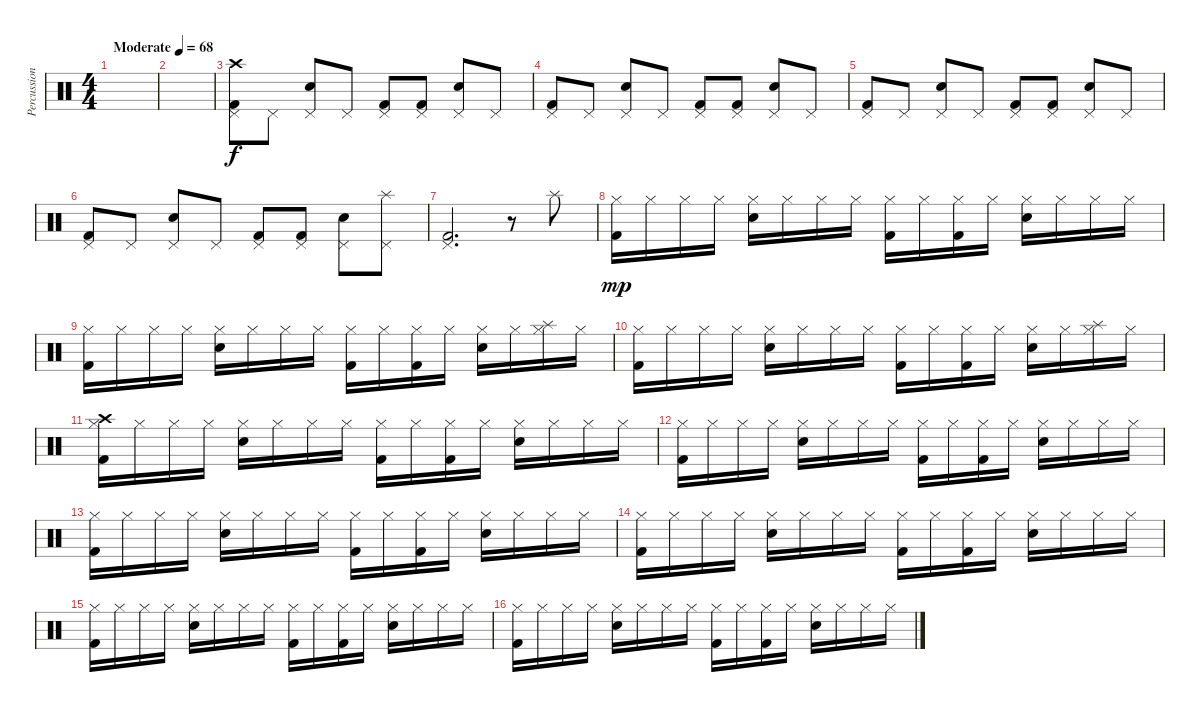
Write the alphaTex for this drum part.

\track ("Percussion" "Percussion") {instrument percussion}
\staff {score}
\articulation defaults
\ts (4 4)
\tempo (68 "Moderate")
\clef neutral
\ks c
|
|
("Crash high (hit)" "Pedal Hi-Hat (hit)" "Kick (hit) 2").8 "Pedal Hi-Hat (hit)".8 ("Pedal Hi-Hat (hit)" "Electric Snare (hit)").8 "Pedal Hi-Hat (hit)".8 ("Pedal Hi-Hat (hit)" "Kick (hit) 2").8 ("Pedal Hi-Hat (hit)" "Kick (hit) 2").8 ("Pedal Hi-Hat (hit)" "Electric Snare (hit)").8 "Pedal Hi-Hat (hit)".8 |
("Pedal Hi-Hat (hit)" "Kick (hit) 2").8 "Pedal Hi-Hat (hit)".8 ("Pedal Hi-Hat (hit)" "Electric Snare (hit)").8 "Pedal Hi-Hat (hit)".8 ("Pedal Hi-Hat (hit)" "Kick (hit) 2").8 ("Pedal Hi-Hat (hit)" "Kick (hit) 2").8 ("Pedal Hi-Hat (hit)" "Electric Snare (hit)").8 "Pedal Hi-Hat (hit)".8 |
("Pedal Hi-Hat (hit)" "Kick (hit) 2").8 "Pedal Hi-Hat (hit)".8 ("Pedal Hi-Hat (hit)" "Electric Snare (hit)").8 "Pedal Hi-Hat (hit)".8 ("Pedal Hi-Hat (hit)" "Kick (hit) 2").8 ("Pedal Hi-Hat (hit)" "Kick (hit) 2").8 ("Pedal Hi-Hat (hit)" "Electric Snare (hit)").8 "Pedal Hi-Hat (hit)".8 |
("Pedal Hi-Hat (hit)" "Kick (hit) 2").8 "Pedal Hi-Hat (hit)".8 ("Pedal Hi-Hat (hit)" "Electric Snare (hit)").8 "Pedal Hi-Hat (hit)".8 ("Pedal Hi-Hat (hit)" "Kick (hit) 2").8 ("Pedal Hi-Hat (hit)" "Kick (hit) 2").8 ("Pedal Hi-Hat (hit)" "Electric Snare (hit)").8 ("Splash (hit)" "Pedal Hi-Hat (hit)").8 |
("Pedal Hi-Hat (hit)" "Kick (hit) 2").2{d} r.8 "Splash (hit)".8 |
("Hi-Hat (closed)" "Kick (hit) 2").16{dy mp} "Hi-Hat (closed)".16 "Hi-Hat (closed)".16 "Hi-Hat (closed)".16 ("Hi-Hat (closed)" "Electric Snare (hit)").16 "Hi-Hat (closed)".16 "Hi-Hat (closed)".16 "Hi-Hat (closed)".16 ("Hi-Hat (closed)" "Kick (hit) 2").16 "Hi-Hat (closed)".16 ("Hi-Hat (closed)" "Kick (hit) 2").16 "Hi-Hat (closed)".16 ("Hi-Hat (closed)" "Electric Snare (hit)").16 "Hi-Hat (closed)".16 "Hi-Hat (closed)".16 "Hi-Hat (closed)".16 |
("Hi-Hat (closed)" "Kick (hit) 2").16 "Hi-Hat (closed)".16 "Hi-Hat (closed)".16 "Hi-Hat (closed)".16 ("Hi-Hat (closed)" "Electric Snare (hit)").16 "Hi-Hat (closed)".16 "Hi-Hat (closed)".16 "Hi-Hat (closed)".16 ("Hi-Hat (closed)" "Kick (hit) 2").16 "Hi-Hat (closed)".16 ("Hi-Hat (closed)" "Kick (hit) 2").16 "Hi-Hat (closed)".16 ("Hi-Hat (closed)" "Electric Snare (hit)").16 "Hi-Hat (closed)".16 ("Splash (hit)" "Hi-Hat (closed)").16 "Hi-Hat (closed)".16 |
("Hi-Hat (closed)" "Kick (hit) 2").16 "Hi-Hat (closed)".16 "Hi-Hat (closed)".16 "Hi-Hat (closed)".16 ("Hi-Hat (closed)" "Electric Snare (hit)").16 "Hi-Hat (closed)".16 "Hi-Hat (closed)".16 "Hi-Hat (closed)".16 ("Hi-Hat (closed)" "Kick (hit) 2").16 "Hi-Hat (closed)".16 ("Hi-Hat (closed)" "Kick (hit) 2").16 "Hi-Hat (closed)".16 ("Hi-Hat (closed)" "Electric Snare (hit)").16 "Hi-Hat (closed)".16 ("Splash (hit)" "Hi-Hat (closed)").16 "Hi-Hat (closed)".16 |
("Crash high (hit)" "Hi-Hat (closed)" "Kick (hit) 2").16 "Hi-Hat (closed)".16 "Hi-Hat (closed)".16 "Hi-Hat (closed)".16 ("Hi-Hat (closed)" "Electric Snare (hit)").16 "Hi-Hat (closed)".16 "Hi-Hat (closed)".16 "Hi-Hat (closed)".16 ("Hi-Hat (closed)" "Kick (hit) 2").16 "Hi-Hat (closed)".16 ("Hi-Hat (closed)" "Kick (hit) 2").16 "Hi-Hat (closed)".16 ("Hi-Hat (closed)" "Electric Snare (hit)").16 "Hi-Hat (closed)".16 "Hi-Hat (closed)".16 "Hi-Hat (closed)".16 |
("Hi-Hat (closed)" "Kick (hit) 2").16 "Hi-Hat (closed)".16 "Hi-Hat (closed)".16 "Hi-Hat (closed)".16 ("Hi-Hat (closed)" "Electric Snare (hit)").16 "Hi-Hat (closed)".16 "Hi-Hat (closed)".16 "Hi-Hat (closed)".16 ("Hi-Hat (closed)" "Kick (hit) 2").16 "Hi-Hat (closed)".16 ("Hi-Hat (closed)" "Kick (hit) 2").16 "Hi-Hat (closed)".16 ("Hi-Hat (closed)" "Electric Snare (hit)").16 "Hi-Hat (closed)".16 "Hi-Hat (closed)".16 "Hi-Hat (closed)".16 |
("Hi-Hat (closed)" "Kick (hit) 2").16 "Hi-Hat (closed)".16 "Hi-Hat (closed)".16 "Hi-Hat (closed)".16 ("Hi-Hat (closed)" "Electric Snare (hit)").16 "Hi-Hat (closed)".16 "Hi-Hat (closed)".16 "Hi-Hat (closed)".16 ("Hi-Hat (closed)" "Kick (hit) 2").16 "Hi-Hat (closed)".16 ("Hi-Hat (closed)" "Kick (hit) 2").16 "Hi-Hat (closed)".16 ("Hi-Hat (closed)" "Electric Snare (hit)").16 "Hi-Hat (closed)".16 "Hi-Hat (closed)".16 "Hi-Hat (closed)".16 |
("Hi-Hat (closed)" "Kick (hit) 2").16 "Hi-Hat (closed)".16 "Hi-Hat (closed)".16 "Hi-Hat (closed)".16 ("Hi-Hat (closed)" "Electric Snare (hit)").16 "Hi-Hat (closed)".16 "Hi-Hat (closed)".16 "Hi-Hat (closed)".16 ("Hi-Hat (closed)" "Kick (hit) 2").16 "Hi-Hat (closed)".16 ("Hi-Hat (closed)" "Kick (hit) 2").16 "Hi-Hat (closed)".16 ("Hi-Hat (closed)" "Electric Snare (hit)").16 "Hi-Hat (closed)".16 "Hi-Hat (closed)".16 "Hi-Hat (closed)".16 |
("Hi-Hat (closed)" "Kick (hit) 2").16 "Hi-Hat (closed)".16 "Hi-Hat (closed)".16 "Hi-Hat (closed)".16 ("Hi-Hat (closed)" "Electric Snare (hit)").16 "Hi-Hat (closed)".16 "Hi-Hat (closed)".16 "Hi-Hat (closed)".16 ("Hi-Hat (closed)" "Kick (hit) 2").16 "Hi-Hat (closed)".16 ("Hi-Hat (closed)" "Kick (hit) 2").16 "Hi-Hat (closed)".16 ("Hi-Hat (closed)" "Electric Snare (hit)").16 "Hi-Hat (closed)".16 "Hi-Hat (closed)".16 "Hi-Hat (closed)".16 |
("Hi-Hat (closed)" "Kick (hit) 2").16 "Hi-Hat (closed)".16 "Hi-Hat (closed)".16 "Hi-Hat (closed)".16 ("Hi-Hat (closed)" "Electric Snare (hit)").16 "Hi-Hat (closed)".16 "Hi-Hat (closed)".16 "Hi-Hat (closed)".16 ("Hi-Hat (closed)" "Kick (hit) 2").16 "Hi-Hat (closed)".16 ("Hi-Hat (closed)" "Kick (hit) 2").16 "Hi-Hat (closed)".16 ("Hi-Hat (closed)" "Electric Snare (hit)").16 "Hi-Hat (closed)".16 "Hi-Hat (closed)".16 "Hi-Hat (closed)".16
